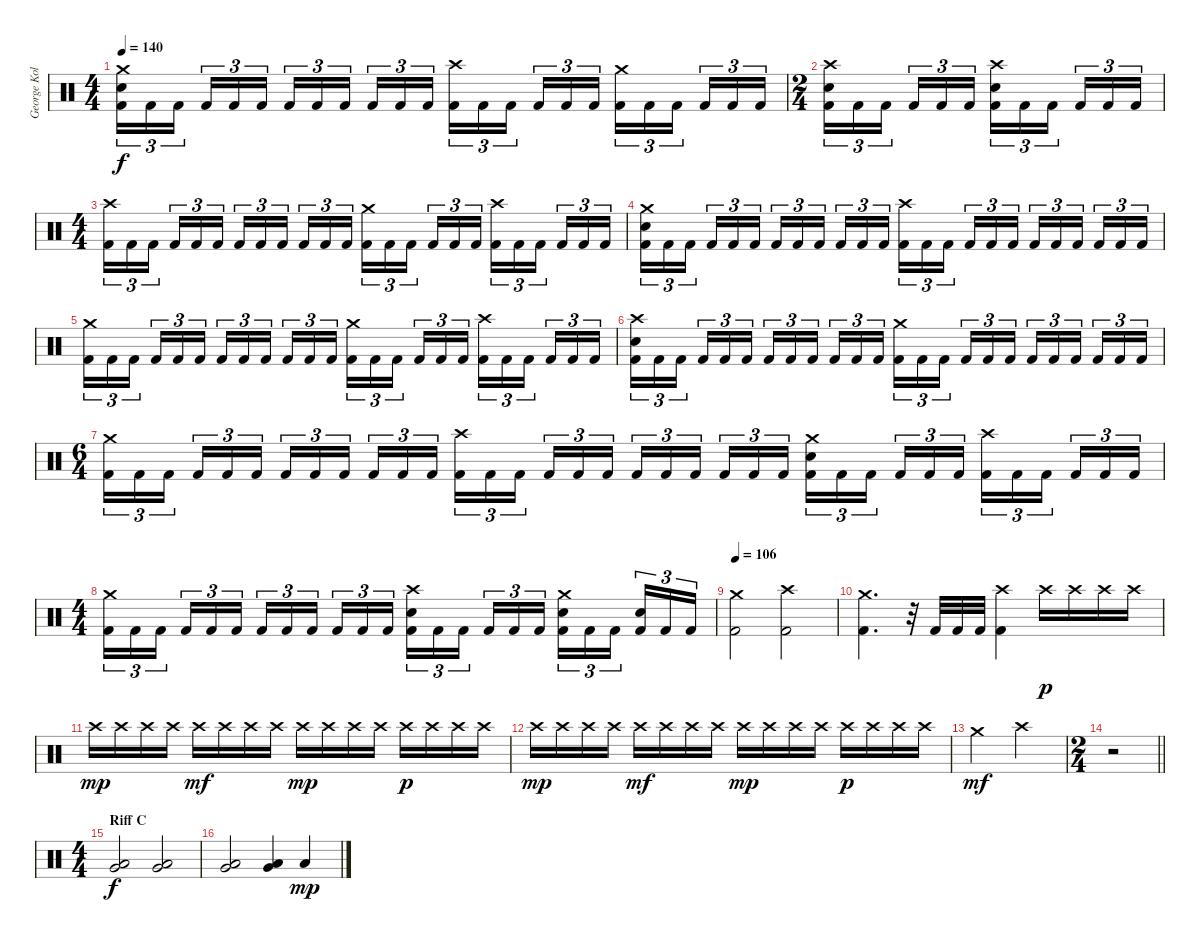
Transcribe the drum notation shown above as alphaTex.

\track ("George Kollias" "George Kol") {instrument percussion}
\staff {score}
\articulation defaults
\ts (4 4)
\tempo 140
\clef neutral
\ks c
("Crash medium (hit)" "Electric Snare (hit)" "Kick (hit) 2").16{tu (3 2) dy f} "Kick (hit) 2".16{tu (3 2)} "Kick (hit) 2".16{tu (3 2) beam splitsecondary} "Kick (hit) 2".16{tu (3 2)} "Kick (hit) 2".16{tu (3 2)} "Kick (hit) 2".16{tu (3 2)} "Kick (hit) 2".16{tu (3 2)} "Kick (hit) 2".16{tu (3 2)} "Kick (hit) 2".16{tu (3 2) beam splitsecondary} "Kick (hit) 2".16{tu (3 2)} "Kick (hit) 2".16{tu (3 2)} "Kick (hit) 2".16{tu (3 2)} ("Crash high (hit)" "Kick (hit) 2").16{tu (3 2)} "Kick (hit) 2".16{tu (3 2)} "Kick (hit) 2".16{tu (3 2) beam splitsecondary} "Kick (hit) 2".16{tu (3 2)} "Kick (hit) 2".16{tu (3 2)} "Kick (hit) 2".16{tu (3 2)} ("Crash medium (hit)" "Kick (hit) 2").16{tu (3 2)} "Kick (hit) 2".16{tu (3 2)} "Kick (hit) 2".16{tu (3 2) beam splitsecondary} "Kick (hit) 2".16{tu (3 2)} "Kick (hit) 2".16{tu (3 2)} "Kick (hit) 2".16{tu (3 2)} |
\ts (2 4)
("Crash high (hit)" "Electric Snare (hit)" "Kick (hit) 2").16{tu (3 2)} "Kick (hit) 2".16{tu (3 2)} "Kick (hit) 2".16{tu (3 2) beam splitsecondary} "Kick (hit) 2".16{tu (3 2)} "Kick (hit) 2".16{tu (3 2)} "Kick (hit) 2".16{tu (3 2)} ("Crash high (hit)" "Electric Snare (hit)" "Kick (hit) 2").16{tu (3 2)} "Kick (hit) 2".16{tu (3 2)} "Kick (hit) 2".16{tu (3 2) beam splitsecondary} "Kick (hit) 2".16{tu (3 2)} "Kick (hit) 2".16{tu (3 2)} "Kick (hit) 2".16{tu (3 2)} |
\ts (4 4)
("Crash high (hit)" "Kick (hit) 2").16{tu (3 2)} "Kick (hit) 2".16{tu (3 2)} "Kick (hit) 2".16{tu (3 2) beam splitsecondary} "Kick (hit) 2".16{tu (3 2)} "Kick (hit) 2".16{tu (3 2)} "Kick (hit) 2".16{tu (3 2)} "Kick (hit) 2".16{tu (3 2)} "Kick (hit) 2".16{tu (3 2)} "Kick (hit) 2".16{tu (3 2) beam splitsecondary} "Kick (hit) 2".16{tu (3 2)} "Kick (hit) 2".16{tu (3 2)} "Kick (hit) 2".16{tu (3 2)} ("Crash medium (hit)" "Kick (hit) 2").16{tu (3 2)} "Kick (hit) 2".16{tu (3 2)} "Kick (hit) 2".16{tu (3 2) beam splitsecondary} "Kick (hit) 2".16{tu (3 2)} "Kick (hit) 2".16{tu (3 2)} "Kick (hit) 2".16{tu (3 2)} ("Crash high (hit)" "Kick (hit) 2").16{tu (3 2)} "Kick (hit) 2".16{tu (3 2)} "Kick (hit) 2".16{tu (3 2) beam splitsecondary} "Kick (hit) 2".16{tu (3 2)} "Kick (hit) 2".16{tu (3 2)} "Kick (hit) 2".16{tu (3 2)} |
("Crash medium (hit)" "Electric Snare (hit)" "Kick (hit) 2").16{tu (3 2)} "Kick (hit) 2".16{tu (3 2)} "Kick (hit) 2".16{tu (3 2) beam splitsecondary} "Kick (hit) 2".16{tu (3 2)} "Kick (hit) 2".16{tu (3 2)} "Kick (hit) 2".16{tu (3 2)} "Kick (hit) 2".16{tu (3 2)} "Kick (hit) 2".16{tu (3 2)} "Kick (hit) 2".16{tu (3 2) beam splitsecondary} "Kick (hit) 2".16{tu (3 2)} "Kick (hit) 2".16{tu (3 2)} "Kick (hit) 2".16{tu (3 2)} ("Crash high (hit)" "Kick (hit) 2").16{tu (3 2)} "Kick (hit) 2".16{tu (3 2)} "Kick (hit) 2".16{tu (3 2) beam splitsecondary} "Kick (hit) 2".16{tu (3 2)} "Kick (hit) 2".16{tu (3 2)} "Kick (hit) 2".16{tu (3 2)} "Kick (hit) 2".16{tu (3 2)} "Kick (hit) 2".16{tu (3 2)} "Kick (hit) 2".16{tu (3 2) beam splitsecondary} "Kick (hit) 2".16{tu (3 2)} "Kick (hit) 2".16{tu (3 2)} "Kick (hit) 2".16{tu (3 2)} |
("Crash medium (hit)" "Kick (hit) 2").16{tu (3 2)} "Kick (hit) 2".16{tu (3 2)} "Kick (hit) 2".16{tu (3 2) beam splitsecondary} "Kick (hit) 2".16{tu (3 2)} "Kick (hit) 2".16{tu (3 2)} "Kick (hit) 2".16{tu (3 2)} "Kick (hit) 2".16{tu (3 2)} "Kick (hit) 2".16{tu (3 2)} "Kick (hit) 2".16{tu (3 2) beam splitsecondary} "Kick (hit) 2".16{tu (3 2)} "Kick (hit) 2".16{tu (3 2)} "Kick (hit) 2".16{tu (3 2)} ("Crash medium (hit)" "Kick (hit) 2").16{tu (3 2)} "Kick (hit) 2".16{tu (3 2)} "Kick (hit) 2".16{tu (3 2) beam splitsecondary} "Kick (hit) 2".16{tu (3 2)} "Kick (hit) 2".16{tu (3 2)} "Kick (hit) 2".16{tu (3 2)} ("Crash high (hit)" "Kick (hit) 2").16{tu (3 2)} "Kick (hit) 2".16{tu (3 2)} "Kick (hit) 2".16{tu (3 2) beam splitsecondary} "Kick (hit) 2".16{tu (3 2)} "Kick (hit) 2".16{tu (3 2)} "Kick (hit) 2".16{tu (3 2)} |
("Crash high (hit)" "Electric Snare (hit)" "Kick (hit) 2").16{tu (3 2)} "Kick (hit) 2".16{tu (3 2)} "Kick (hit) 2".16{tu (3 2) beam splitsecondary} "Kick (hit) 2".16{tu (3 2)} "Kick (hit) 2".16{tu (3 2)} "Kick (hit) 2".16{tu (3 2)} "Kick (hit) 2".16{tu (3 2)} "Kick (hit) 2".16{tu (3 2)} "Kick (hit) 2".16{tu (3 2) beam splitsecondary} "Kick (hit) 2".16{tu (3 2)} "Kick (hit) 2".16{tu (3 2)} "Kick (hit) 2".16{tu (3 2)} ("Crash medium (hit)" "Kick (hit) 2").16{tu (3 2)} "Kick (hit) 2".16{tu (3 2)} "Kick (hit) 2".16{tu (3 2) beam splitsecondary} "Kick (hit) 2".16{tu (3 2)} "Kick (hit) 2".16{tu (3 2)} "Kick (hit) 2".16{tu (3 2)} "Kick (hit) 2".16{tu (3 2)} "Kick (hit) 2".16{tu (3 2)} "Kick (hit) 2".16{tu (3 2) beam splitsecondary} "Kick (hit) 2".16{tu (3 2)} "Kick (hit) 2".16{tu (3 2)} "Kick (hit) 2".16{tu (3 2)} |
\ts (6 4)
("Crash medium (hit)" "Kick (hit) 2").16{tu (3 2)} "Kick (hit) 2".16{tu (3 2)} "Kick (hit) 2".16{tu (3 2) beam splitsecondary} "Kick (hit) 2".16{tu (3 2)} "Kick (hit) 2".16{tu (3 2)} "Kick (hit) 2".16{tu (3 2) beam splitsecondary} "Kick (hit) 2".16{tu (3 2)} "Kick (hit) 2".16{tu (3 2)} "Kick (hit) 2".16{tu (3 2) beam splitsecondary} "Kick (hit) 2".16{tu (3 2)} "Kick (hit) 2".16{tu (3 2)} "Kick (hit) 2".16{tu (3 2) beam splitsecondary} ("Crash high (hit)" "Kick (hit) 2").16{tu (3 2)} "Kick (hit) 2".16{tu (3 2)} "Kick (hit) 2".16{tu (3 2) beam splitsecondary} "Kick (hit) 2".16{tu (3 2)} "Kick (hit) 2".16{tu (3 2)} "Kick (hit) 2".16{tu (3 2)} "Kick (hit) 2".16{tu (3 2)} "Kick (hit) 2".16{tu (3 2)} "Kick (hit) 2".16{tu (3 2) beam splitsecondary} "Kick (hit) 2".16{tu (3 2)} "Kick (hit) 2".16{tu (3 2)} "Kick (hit) 2".16{tu (3 2) beam splitsecondary} ("Crash medium (hit)" "Electric Snare (hit)" "Kick (hit) 2").16{tu (3 2)} "Kick (hit) 2".16{tu (3 2)} "Kick (hit) 2".16{tu (3 2) beam splitsecondary} "Kick (hit) 2".16{tu (3 2)} "Kick (hit) 2".16{tu (3 2)} "Kick (hit) 2".16{tu (3 2) beam splitsecondary} ("Crash high (hit)" "Kick (hit) 2").16{tu (3 2)} "Kick (hit) 2".16{tu (3 2)} "Kick (hit) 2".16{tu (3 2) beam splitsecondary} "Kick (hit) 2".16{tu (3 2)} "Kick (hit) 2".16{tu (3 2)} "Kick (hit) 2".16{tu (3 2)} |
\ts (4 4)
("Crash medium (hit)" "Kick (hit) 2").16{tu (3 2)} "Kick (hit) 2".16{tu (3 2)} "Kick (hit) 2".16{tu (3 2) beam splitsecondary} "Kick (hit) 2".16{tu (3 2)} "Kick (hit) 2".16{tu (3 2)} "Kick (hit) 2".16{tu (3 2)} "Kick (hit) 2".16{tu (3 2)} "Kick (hit) 2".16{tu (3 2)} "Kick (hit) 2".16{tu (3 2) beam splitsecondary} "Kick (hit) 2".16{tu (3 2)} "Kick (hit) 2".16{tu (3 2)} "Kick (hit) 2".16{tu (3 2)} ("Crash high (hit)" "Electric Snare (hit)" "Kick (hit) 2").16{tu (3 2)} "Kick (hit) 2".16{tu (3 2)} "Kick (hit) 2".16{tu (3 2) beam splitsecondary} "Kick (hit) 2".16{tu (3 2)} "Kick (hit) 2".16{tu (3 2)} "Kick (hit) 2".16{tu (3 2)} ("Crash medium (hit)" "Electric Snare (hit)" "Kick (hit) 2").16{tu (3 2)} "Kick (hit) 2".16{tu (3 2)} "Kick (hit) 2".16{tu (3 2) beam splitsecondary} ("Electric Snare (hit)" "Kick (hit) 2").16{tu (3 2)} "Kick (hit) 2".16{tu (3 2)} "Kick (hit) 2".16{tu (3 2)} |
\tempo 106
("Crash medium (hit)" "Kick (hit) 2").2 ("Crash high (hit)" "Kick (hit) 2").2 |
("Crash medium (hit)" "Kick (hit) 2").4{d} r.32 "Kick (hit) 2".32 "Kick (hit) 2".32 "Kick (hit) 2".32 ("Crash high (hit)" "Kick (hit) 2").4 "Crash high (hit)".16{dy p} "Crash high (hit)".16 "Crash high (hit)".16 "Crash high (hit)".16 |
"Crash high (hit)".16{dy mp} "Crash high (hit)".16 "Crash high (hit)".16 "Crash high (hit)".16 "Crash high (hit)".16{dy mf} "Crash high (hit)".16 "Crash high (hit)".16 "Crash high (hit)".16 "Crash high (hit)".16{dy mp} "Crash high (hit)".16 "Crash high (hit)".16 "Crash high (hit)".16 "Crash high (hit)".16{dy p} "Crash high (hit)".16 "Crash high (hit)".16 "Crash high (hit)".16 |
"Crash high (hit)".16{dy mp} "Crash high (hit)".16 "Crash high (hit)".16 "Crash high (hit)".16 "Crash high (hit)".16{dy mf} "Crash high (hit)".16 "Crash high (hit)".16 "Crash high (hit)".16 "Crash high (hit)".16{dy mp} "Crash high (hit)".16 "Crash high (hit)".16 "Crash high (hit)".16 "Crash high (hit)".16{dy p} "Crash high (hit)".16 "Crash high (hit)".16 "Crash high (hit)".16 |
"Crash medium (hit)".2{dy mf} "Crash high (hit)".2 |
\ts (2 4)
\barLineRight lightlight
r.2 |
\ts (4 4)
\section ("" "Riff C")
("Very Low Tom (hit)" "Low Floor Tom (hit)").2{dy f} ("Very Low Tom (hit)" "Low Floor Tom (hit)").2 |
("Very Low Tom (hit)" "Low Floor Tom (hit)").2 ("Very Low Tom (hit)" "Low Floor Tom (hit)").4 "Low Floor Tom (hit)".4{dy mp}
